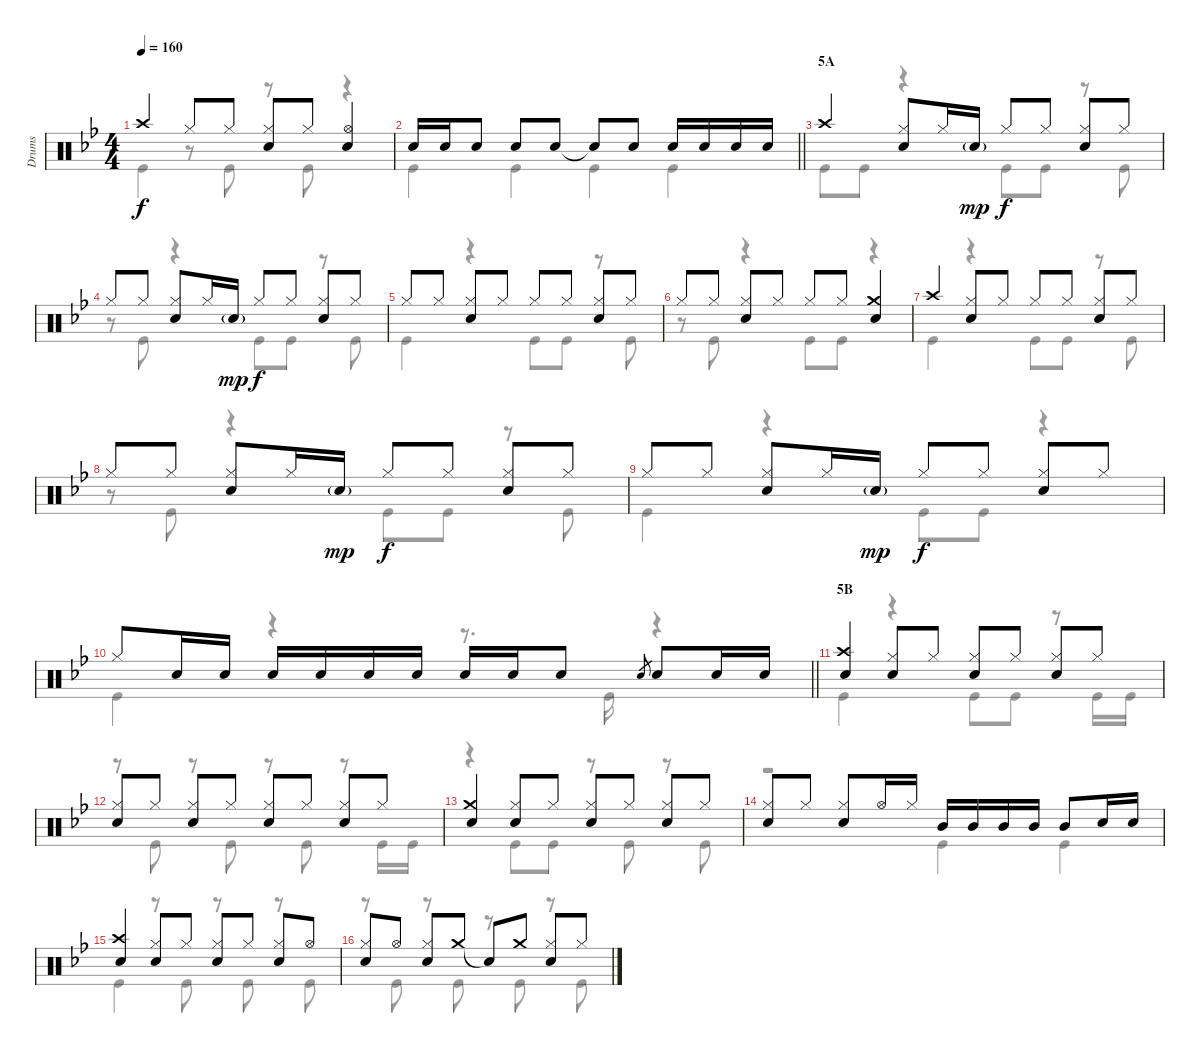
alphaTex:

\track ("Drums" "Drums") {instrument percussion}
\staff {score}
\articulation defaults
\voice
\ts (4 4)
\tempo 160
\clef neutral
\ks bb "Crash high (hit)".4{dy f} "Hi-Hat (closed)".8 "Hi-Hat (closed)".8
("Hi-Hat (closed)" "Snare (hit) 2").8 "Hi-Hat (closed)".8 ("Hi-Hat (open)" "Snare (hit) 2").4 |
\barLineRight lightlight "Snare (hit) 2".16 "Snare (hit) 2".16 "Snare (hit) 2".8 "Snare (hit) 2".8 "Snare (hit) 2".8 "Snare (hit)"{t}.8 "Snare (hit) 2".8 "Snare (hit) 2".16 "Snare (hit) 2".16 "Snare (hit) 2".16 "Snare (hit) 2".16
|
\section ("" "5A")
"Crash high (hit)".4 ("Hi-Hat (closed)" "Snare (hit) 2").8 "Hi-Hat (closed)".16 "Snare (hit) 2"{g}.16{dy mp} "Hi-Hat (closed)".8{dy f} "Hi-Hat (closed)".8 ("Hi-Hat (closed)" "Snare (hit) 2").8 "Hi-Hat (closed)".8 |
"Hi-Hat (closed)".8 "Hi-Hat (closed)".8 ("Hi-Hat (closed)" "Snare (hit) 2").8 "Hi-Hat (closed)".16 "Snare (hit) 2"{g}.16{dy mp} "Hi-Hat (closed)".8{dy f} "Hi-Hat (closed)".8 ("Hi-Hat (closed)" "Snare (hit) 2").8 "Hi-Hat (closed)".8 |
"Hi-Hat (closed)".8 "Hi-Hat (closed)".8 ("Hi-Hat (closed)" "Snare (hit) 2").8 "Hi-Hat (closed)".8 "Hi-Hat (closed)".8 "Hi-Hat (closed)".8 ("Hi-Hat (closed)" "Snare (hit) 2").8 "Hi-Hat (closed)".8 |
"Hi-Hat (closed)".8 "Hi-Hat (closed)".8 ("Hi-Hat (closed)" "Snare (hit) 2").8 "Hi-Hat (closed)".8 "Hi-Hat (closed)".8 "Hi-Hat (closed)".8 ("Crash medium (hit)" "Snare (hit) 2").4 |
"Crash high (hit)".4 ("Hi-Hat (closed)" "Snare (hit) 2").8 "Hi-Hat (closed)".8 "Hi-Hat (closed)".8 "Hi-Hat (closed)".8 ("Hi-Hat (closed)" "Snare (hit) 2").8 "Hi-Hat (closed)".8 |
"Hi-Hat (closed)".8 "Hi-Hat (closed)".8 ("Hi-Hat (closed)" "Snare (hit) 2").8 "Hi-Hat (closed)".16 "Snare (hit) 2"{g}.16{dy mp} "Hi-Hat (closed)".8{dy f} "Hi-Hat (closed)".8 ("Hi-Hat (closed)" "Snare (hit) 2").8 "Hi-Hat (closed)".8 |
"Hi-Hat (closed)".8 "Hi-Hat (closed)".8 ("Hi-Hat (closed)" "Snare (hit) 2").8 "Hi-Hat (closed)".16 "Snare (hit) 2"{g}.16{dy mp} "Hi-Hat (closed)".8{dy f} "Hi-Hat (closed)".8 ("Hi-Hat (closed)" "Snare (hit) 2").8 "Hi-Hat (closed)".8 |
\barLineRight lightlight "Hi-Hat (closed)".8 "Snare (hit) 2".16 "Snare (hit) 2".16 "Snare (hit) 2".16 "Snare (hit) 2".16 "Snare (hit) 2".16 "Snare (hit) 2".16 "Snare (hit) 2".16 "Snare (hit) 2".16 "Snare (hit) 2".8 "Snare (hit) 2".8{gr} "Snare (hit) 2".8 "Snare (hit) 2".16 "Snare (hit) 2".16
|
\section ("" "5B")
("Crash high (hit)" "Snare (hit) 2").4 ("Hi-Hat (closed)" "Snare (hit) 2").8 "Hi-Hat (closed)".8 ("Hi-Hat (closed)" "Snare (hit) 2").8 "Hi-Hat (closed)".8 ("Hi-Hat (closed)" "Snare (hit) 2").8 "Hi-Hat (closed)".8 |
("Hi-Hat (closed)" "Snare (hit) 2").8 "Hi-Hat (closed)".8 ("Hi-Hat (closed)" "Snare (hit) 2").8 "Hi-Hat (closed)".8 ("Hi-Hat (closed)" "Snare (hit) 2").8 "Hi-Hat (closed)".8 ("Hi-Hat (closed)" "Snare (hit) 2").8 "Hi-Hat (closed)".8 |
("Crash medium (hit)" "Snare (hit) 2").4 ("Hi-Hat (closed)" "Snare (hit) 2").8 "Hi-Hat (closed)".8 ("Hi-Hat (closed)" "Snare (hit) 2").8 "Hi-Hat (closed)".8 ("Hi-Hat (closed)" "Snare (hit) 2").8 "Hi-Hat (closed)".8 |
("Hi-Hat (closed)" "Snare (hit) 2").8 "Hi-Hat (closed)".8 ("Hi-Hat (closed)" "Snare (hit) 2").8 "Hi-Hat (open)".16 "Hi-Hat (closed)".16 "Mid Tom (hit)".16 "Mid Tom (hit)".16 "Mid Tom (hit)".16 "Mid Tom (hit)".16 "Mid Tom (hit)".8 "Snare (hit) 2".16 "Snare (hit) 2".16 |
("Crash high (hit)" "Snare (hit) 2").4 ("Hi-Hat (closed)" "Snare (hit) 2").8 "Hi-Hat (closed)".8 ("Hi-Hat (closed)" "Snare (hit) 2").8 "Hi-Hat (closed)".8 ("Hi-Hat (closed)" "Snare (hit) 2").8 "Hi-Hat (open)".8 |
("Hi-Hat (closed)" "Snare (hit) 2").8 "Hi-Hat (open)".8 ("Hi-Hat (closed)" "Snare (hit) 2").8 "Crash medium (hit)".8 "Snare (hit)"{t}.8 "Crash medium (hit)".8 ("Hi-Hat (closed)" "Snare (hit) 2").8 "Hi-Hat (closed)".8
\voice
\clef neutral
\ottava regular
\simile none
\ks bb "Kick (hit)".4{dy f}
r.8 "Kick (hit)".8 r.8 "Kick (hit)".8 r.4 |
\barLineRight lightlight "Kick (hit)".4 "Kick (hit)".4 "Kick (hit)".4 "Kick (hit)".4
|
"Kick (hit)".8 "Kick (hit)".8 r.4 "Kick (hit)".8 "Kick (hit)".8 r.8 "Kick (hit)".8 |
r.8 "Kick (hit)".8 r.4 "Kick (hit)".8 "Kick (hit)".8 r.8 "Kick (hit)".8 |
"Kick (hit)".4 r.4 "Kick (hit)".8 "Kick (hit)".8 r.8 "Kick (hit)".8 |
r.8 "Kick (hit)".8 r.4 "Kick (hit)".8 "Kick (hit)".8 r.4 |
"Kick (hit)".4 r.4 "Kick (hit)".8 "Kick (hit)".8 r.8 "Kick (hit)".8 |
r.8 "Kick (hit)".8 r.4 "Kick (hit)".8 "Kick (hit)".8 r.8 "Kick (hit)".8 |
"Kick (hit)".4 r.4 "Kick (hit)".8 "Kick (hit)".8 r.4 |
\barLineRight lightlight "Kick (hit)".4
r.4 r.8{d} "Kick (hit)".16 r.4 |
"Kick (hit)".4 r.4 "Kick (hit)".8 "Kick (hit)".8 r.8 "Kick (hit)".16 "Kick (hit)".16 |
r.8 "Kick (hit)".8 r.8 "Kick (hit)".8 r.8 "Kick (hit)".8 r.8 "Kick (hit)".16 "Kick (hit)".16 |
r.4 "Kick (hit)".8 "Kick (hit)".8 r.8 "Kick (hit)".8 r.8 "Kick (hit)".8 |
r.2 "Kick (hit)".4 "Kick (hit)".4 |
"Kick (hit)".4 r.8 "Kick (hit)".8 r.8 "Kick (hit)".8 r.8 "Kick (hit)".8 |
r.8 "Kick (hit)".8 r.8 "Kick (hit)".8 r.8 "Kick (hit)".8 r.8 "Kick (hit)".8
